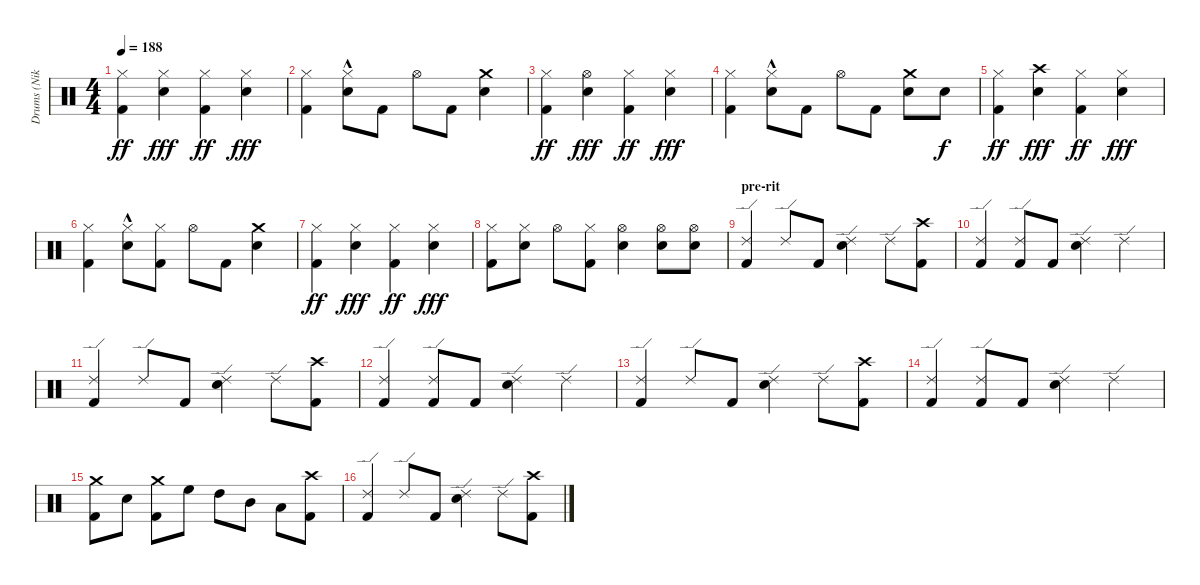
\track ("Drums (Niko)" "Drums (Nik") {instrument percussion}
\staff {score}
\articulation defaults
\ts (4 4)
\tempo 188
\clef neutral
\ks c
("Hi-Hat (closed)" "Kick (hit) 2").4{dy ff} ("Hi-Hat (closed)" "Electric Snare (hit)").4{dy fff} ("Hi-Hat (closed)" "Kick (hit) 2").4{dy ff} ("Hi-Hat (closed)" "Electric Snare (hit)").4{dy fff} |
("Hi-Hat (closed)" "Kick (hit) 2").4 ("Hi-Hat (closed)" "Electric Snare (hit)"{hac}).8 "Kick (hit) 2".8 "Hi-Hat (open)".8 "Kick (hit) 2".8 ("Crash medium (hit)" "Electric Snare (hit)").4 |
("Hi-Hat (closed)" "Kick (hit) 2").4{dy ff} ("Hi-Hat (open)" "Electric Snare (hit)").4{dy fff} ("Hi-Hat (closed)" "Kick (hit) 2").4{dy ff} ("Hi-Hat (closed)" "Electric Snare (hit)").4{dy fff} |
("Hi-Hat (closed)" "Kick (hit) 2").4 ("Hi-Hat (closed)" "Electric Snare (hit)"{hac}).8 "Kick (hit) 2".8 "Hi-Hat (open)".8 "Kick (hit) 2".8 ("Crash medium (hit)" "Electric Snare (hit)").8 "Electric Snare (hit)".8{dy f} |
("Hi-Hat (closed)" "Kick (hit) 2").4{dy ff} ("Crash high (hit)" "Electric Snare (hit)").4{dy fff} ("Hi-Hat (closed)" "Kick (hit) 2").4{dy ff} ("Hi-Hat (closed)" "Electric Snare (hit)").4{dy fff} |
("Hi-Hat (closed)" "Kick (hit) 2").4 ("Hi-Hat (closed)" "Electric Snare (hit)"{hac}).8 ("Hi-Hat (closed)" "Kick (hit) 2").8 "Hi-Hat (open)".8 "Kick (hit) 2".8 ("Crash medium (hit)" "Electric Snare (hit)").4 |
("Hi-Hat (closed)" "Kick (hit) 2").4{dy ff} ("Hi-Hat (closed)" "Electric Snare (hit)").4{dy fff} ("Hi-Hat (closed)" "Kick (hit) 2").4{dy ff} ("Hi-Hat (closed)" "Electric Snare (hit)").4{dy fff} |
("Hi-Hat (closed)" "Kick (hit) 2").8 ("Hi-Hat (closed)" "Electric Snare (hit)").8 "Hi-Hat (open)".8 ("Hi-Hat (closed)" "Kick (hit) 2").8 ("Hi-Hat (open)" "Electric Snare (hit)").4 ("Hi-Hat (open)" "Electric Snare (hit)").8 ("Hi-Hat (open)" "Electric Snare (hit)").8 |
\section ("" "pre-rit")
("Ride (edge) 2" "Kick (hit) 2").4 "Ride (edge) 2".8 "Kick (hit) 2".8 ("Ride (edge) 2" "Electric Snare (hit)").4 "Ride (edge) 2".8 ("Crash high (hit)" "Kick (hit) 2").8 |
("Ride (edge) 2" "Kick (hit) 2").4 ("Ride (edge) 2" "Kick (hit) 2").8 "Kick (hit) 2".8 ("Ride (edge) 2" "Electric Snare (hit)").4 "Ride (edge) 2".4 |
("Ride (edge) 2" "Kick (hit) 2").4 "Ride (edge) 2".8 "Kick (hit) 2".8 ("Ride (edge) 2" "Electric Snare (hit)").4 "Ride (edge) 2".8 ("Crash high (hit)" "Kick (hit) 2").8 |
("Ride (edge) 2" "Kick (hit) 2").4 ("Ride (edge) 2" "Kick (hit) 2").8 "Kick (hit) 2".8 ("Ride (edge) 2" "Electric Snare (hit)").4 "Ride (edge) 2".4 |
("Ride (edge) 2" "Kick (hit) 2").4 "Ride (edge) 2".8 "Kick (hit) 2".8 ("Ride (edge) 2" "Electric Snare (hit)").4 "Ride (edge) 2".8 ("Crash high (hit)" "Kick (hit) 2").8 |
("Ride (edge) 2" "Kick (hit) 2").4 ("Ride (edge) 2" "Kick (hit) 2").8 "Kick (hit) 2".8 ("Ride (edge) 2" "Electric Snare (hit)").4 "Ride (edge) 2".4 |
("Crash medium (hit)" "Kick (hit) 2").8 "Electric Snare (hit)".8 ("Crash medium (hit)" "Kick (hit) 2").8 "High Floor Tom (hit)".8 "High Tom (hit)".8 "Mid Tom (hit)".8 "Low Tom (hit)".8 ("Crash high (hit)" "Kick (hit) 2").8 |
("Ride (edge) 2" "Kick (hit) 2").4 "Ride (edge) 2".8 "Kick (hit) 2".8 ("Ride (edge) 2" "Electric Snare (hit)").4 "Ride (edge) 2".8 ("Crash high (hit)" "Kick (hit) 2").8
